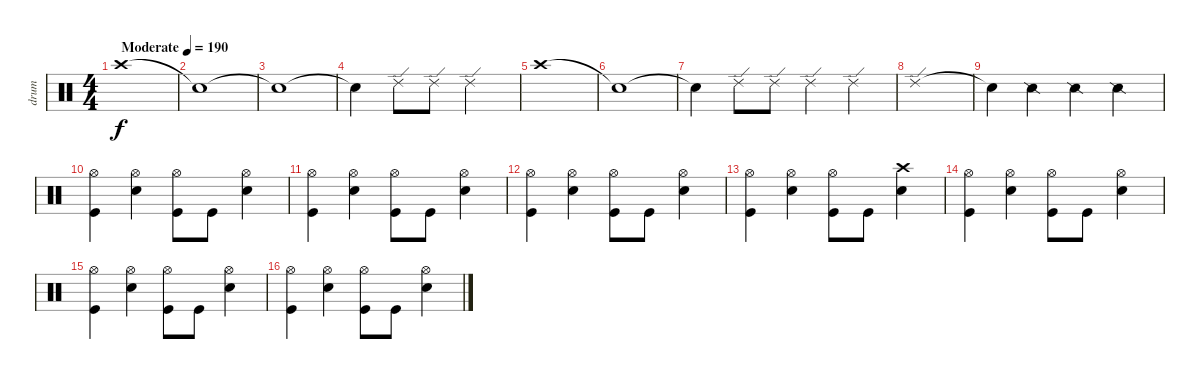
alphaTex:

\track ("drum" "drum") {instrument percussion}
\staff {score}
\articulation defaults
\ts (4 4)
\tempo (190 "Moderate")
\clef neutral
\ks c "Crash high (hit)".1{dy f}
|
"Snare (hit)"{t}.1 |
"Snare (hit)"{t}.1 |
"Snare (hit)"{t}.4 "Ride (edge) 2".8 "Ride (edge) 2".8 "Ride (edge) 2".2 |
"Crash high (hit)".1 |
"Snare (hit)"{t}.1 |
"Snare (hit)"{t}.4 "Ride (edge) 2".8 "Ride (edge) 2".8 "Ride (edge) 2".4 "Ride (edge) 2".4 |
"Ride (edge) 2".1 |
"Snare (hit)"{t}.4 "Snare (side stick) 2".4 "Snare (side stick) 2".4 "Snare (side stick) 2".4 |
("Kick (hit)" "Hi-Hat (open)").4 ("Snare (hit) 2" "Hi-Hat (open)").4 ("Kick (hit)" "Hi-Hat (open)").8 "Kick (hit)".8 ("Snare (hit) 2" "Hi-Hat (open)").4 |
("Kick (hit)" "Hi-Hat (open)").4 ("Snare (hit) 2" "Hi-Hat (open)").4 ("Kick (hit)" "Hi-Hat (open)").8 "Kick (hit)".8 ("Snare (hit) 2" "Hi-Hat (open)").4 |
("Kick (hit)" "Hi-Hat (open)").4 ("Snare (hit) 2" "Hi-Hat (open)").4 ("Kick (hit)" "Hi-Hat (open)").8 "Kick (hit)".8 ("Snare (hit) 2" "Hi-Hat (open)").4 |
("Kick (hit)" "Hi-Hat (open)").4 ("Snare (hit) 2" "Hi-Hat (open)").4 ("Kick (hit)" "Hi-Hat (open)").8 "Kick (hit)".8 ("Snare (hit) 2" "Crash high (hit)").4 |
("Kick (hit)" "Hi-Hat (open)").4 ("Snare (hit) 2" "Hi-Hat (open)").4 ("Kick (hit)" "Hi-Hat (open)").8 "Kick (hit)".8 ("Snare (hit) 2" "Hi-Hat (open)").4 |
("Kick (hit)" "Hi-Hat (open)").4 ("Snare (hit) 2" "Hi-Hat (open)").4 ("Kick (hit)" "Hi-Hat (open)").8 "Kick (hit)".8 ("Snare (hit) 2" "Hi-Hat (open)").4 |
("Kick (hit)" "Hi-Hat (open)").4 ("Snare (hit) 2" "Hi-Hat (open)").4 ("Kick (hit)" "Hi-Hat (open)").8 "Kick (hit)".8 ("Snare (hit) 2" "Hi-Hat (open)").4
